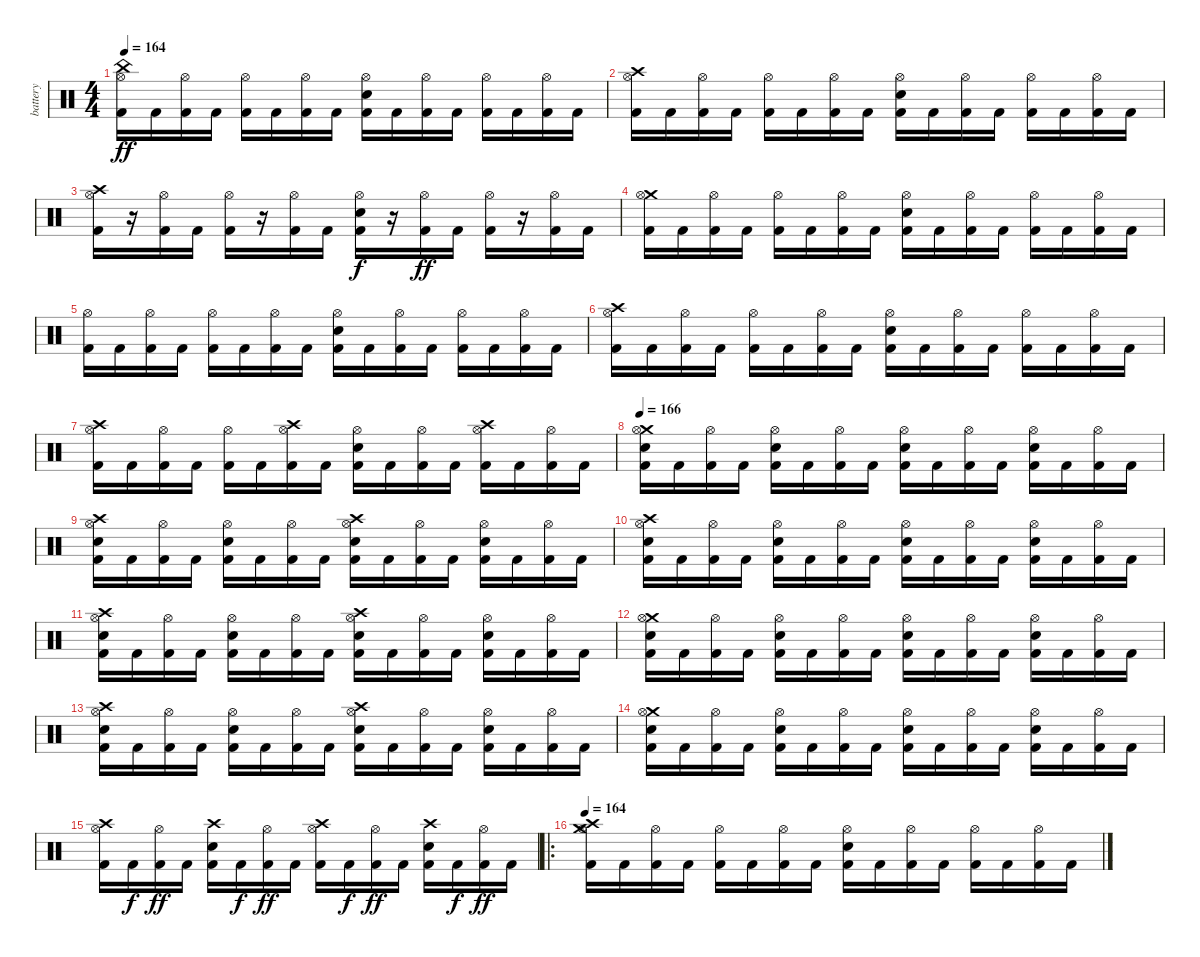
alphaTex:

\track ("battery" "battery") {instrument percussion}
\staff {score}
\articulation defaults
\ts (4 4)
\tempo 164
\clef neutral
\ks c
("Kick (hit) 2" "China (hit)" "Hi-Hat (open)").16{dy ff} "Kick (hit) 2".16 ("Kick (hit) 2" "Hi-Hat (open)").16 "Kick (hit) 2".16 ("Kick (hit) 2" "Hi-Hat (open)").16 "Kick (hit) 2".16 ("Kick (hit) 2" "Hi-Hat (open)").16 "Kick (hit) 2".16 ("Kick (hit) 2" "Electric Snare (hit)" "Hi-Hat (open)").16 "Kick (hit) 2".16 ("Kick (hit) 2" "Hi-Hat (open)").16 "Kick (hit) 2".16 ("Kick (hit) 2" "Hi-Hat (open)").16 "Kick (hit) 2".16 ("Kick (hit) 2" "Hi-Hat (open)").16 "Kick (hit) 2".16 |
("Kick (hit) 2" "Crash high (hit)" "Hi-Hat (open)").16 "Kick (hit) 2".16 ("Kick (hit) 2" "Hi-Hat (open)").16 "Kick (hit) 2".16 ("Kick (hit) 2" "Hi-Hat (open)").16 "Kick (hit) 2".16 ("Kick (hit) 2" "Hi-Hat (open)").16 "Kick (hit) 2".16 ("Kick (hit) 2" "Electric Snare (hit)" "Hi-Hat (open)").16 "Kick (hit) 2".16 ("Kick (hit) 2" "Hi-Hat (open)").16 "Kick (hit) 2".16 ("Kick (hit) 2" "Hi-Hat (open)").16 "Kick (hit) 2".16 ("Kick (hit) 2" "Hi-Hat (open)").16 "Kick (hit) 2".16 |
("Kick (hit) 2" "Crash high (hit)" "Hi-Hat (open)").16 r.16 ("Kick (hit) 2" "Hi-Hat (open)").16 "Kick (hit) 2".16 ("Kick (hit) 2" "Hi-Hat (open)").16 r.16 ("Kick (hit) 2" "Hi-Hat (open)").16 "Kick (hit) 2".16 ("Kick (hit) 2" "Electric Snare (hit)" "Hi-Hat (open)").16{dy f} r.16 ("Kick (hit) 2" "Hi-Hat (open)").16{dy ff} "Kick (hit) 2".16 ("Kick (hit) 2" "Hi-Hat (open)").16 r.16 ("Kick (hit) 2" "Hi-Hat (open)").16 "Kick (hit) 2".16 |
("Kick (hit) 2" "Crash medium (hit)" "Hi-Hat (open)").16 "Kick (hit) 2".16 ("Kick (hit) 2" "Hi-Hat (open)").16 "Kick (hit) 2".16 ("Kick (hit) 2" "Hi-Hat (open)").16 "Kick (hit) 2".16 ("Kick (hit) 2" "Hi-Hat (open)").16 "Kick (hit) 2".16 ("Kick (hit) 2" "Electric Snare (hit)" "Hi-Hat (open)").16 "Kick (hit) 2".16 ("Kick (hit) 2" "Hi-Hat (open)").16 "Kick (hit) 2".16 ("Kick (hit) 2" "Hi-Hat (open)").16 "Kick (hit) 2".16 ("Kick (hit) 2" "Hi-Hat (open)").16 "Kick (hit) 2".16 |
("Kick (hit) 2" "Hi-Hat (open)").16 "Kick (hit) 2".16 ("Kick (hit) 2" "Hi-Hat (open)").16 "Kick (hit) 2".16 ("Kick (hit) 2" "Hi-Hat (open)").16 "Kick (hit) 2".16 ("Kick (hit) 2" "Hi-Hat (open)").16 "Kick (hit) 2".16 ("Kick (hit) 2" "Electric Snare (hit)" "Hi-Hat (open)").16 "Kick (hit) 2".16 ("Kick (hit) 2" "Hi-Hat (open)").16 "Kick (hit) 2".16 ("Kick (hit) 2" "Hi-Hat (open)").16 "Kick (hit) 2".16 ("Kick (hit) 2" "Hi-Hat (open)").16 "Kick (hit) 2".16 |
("Kick (hit) 2" "Crash high (hit)" "Hi-Hat (open)").16 "Kick (hit) 2".16 ("Kick (hit) 2" "Hi-Hat (open)").16 "Kick (hit) 2".16 ("Kick (hit) 2" "Hi-Hat (open)").16 "Kick (hit) 2".16 ("Kick (hit) 2" "Hi-Hat (open)").16 "Kick (hit) 2".16 ("Kick (hit) 2" "Electric Snare (hit)" "Hi-Hat (open)").16 "Kick (hit) 2".16 ("Kick (hit) 2" "Hi-Hat (open)").16 "Kick (hit) 2".16 ("Kick (hit) 2" "Hi-Hat (open)").16 "Kick (hit) 2".16 ("Kick (hit) 2" "Hi-Hat (open)").16 "Kick (hit) 2".16 |
("Kick (hit) 2" "Crash high (hit)" "Hi-Hat (open)").16 "Kick (hit) 2".16 ("Kick (hit) 2" "Hi-Hat (open)").16 "Kick (hit) 2".16 ("Kick (hit) 2" "Hi-Hat (open)").16 "Kick (hit) 2".16 ("Kick (hit) 2" "Crash high (hit)" "Hi-Hat (open)").16 "Kick (hit) 2".16 ("Kick (hit) 2" "Electric Snare (hit)" "Hi-Hat (open)").16 "Kick (hit) 2".16 ("Kick (hit) 2" "Hi-Hat (open)").16 "Kick (hit) 2".16 ("Kick (hit) 2" "Crash high (hit)" "Hi-Hat (open)").16 "Kick (hit) 2".16 ("Kick (hit) 2" "Hi-Hat (open)").16 "Kick (hit) 2".16 |
\tempo 166
("Kick (hit) 2" "Electric Snare (hit)" "Crash medium (hit)" "Hi-Hat (open)").16 "Kick (hit) 2".16 ("Kick (hit) 2" "Hi-Hat (open)").16 "Kick (hit) 2".16 ("Kick (hit) 2" "Electric Snare (hit)" "Hi-Hat (open)").16 "Kick (hit) 2".16 ("Kick (hit) 2" "Hi-Hat (open)").16 "Kick (hit) 2".16 ("Kick (hit) 2" "Electric Snare (hit)" "Hi-Hat (open)").16 "Kick (hit) 2".16 ("Kick (hit) 2" "Hi-Hat (open)").16 "Kick (hit) 2".16 ("Kick (hit) 2" "Electric Snare (hit)" "Hi-Hat (open)").16 "Kick (hit) 2".16 ("Kick (hit) 2" "Hi-Hat (open)").16 "Kick (hit) 2".16 |
("Kick (hit) 2" "Electric Snare (hit)" "Crash high (hit)" "Hi-Hat (open)").16 "Kick (hit) 2".16 ("Kick (hit) 2" "Hi-Hat (open)").16 "Kick (hit) 2".16 ("Kick (hit) 2" "Electric Snare (hit)" "Hi-Hat (open)").16 "Kick (hit) 2".16 ("Kick (hit) 2" "Hi-Hat (open)").16 "Kick (hit) 2".16 ("Kick (hit) 2" "Electric Snare (hit)" "Crash high (hit)" "Hi-Hat (open)").16 "Kick (hit) 2".16 ("Kick (hit) 2" "Hi-Hat (open)").16 "Kick (hit) 2".16 ("Kick (hit) 2" "Electric Snare (hit)" "Hi-Hat (open)").16 "Kick (hit) 2".16 ("Kick (hit) 2" "Hi-Hat (open)").16 "Kick (hit) 2".16 |
("Kick (hit) 2" "Electric Snare (hit)" "Crash high (hit)" "Hi-Hat (open)").16 "Kick (hit) 2".16 ("Kick (hit) 2" "Hi-Hat (open)").16 "Kick (hit) 2".16 ("Kick (hit) 2" "Electric Snare (hit)" "Hi-Hat (open)").16 "Kick (hit) 2".16 ("Kick (hit) 2" "Hi-Hat (open)").16 "Kick (hit) 2".16 ("Kick (hit) 2" "Electric Snare (hit)" "Hi-Hat (open)").16 "Kick (hit) 2".16 ("Kick (hit) 2" "Hi-Hat (open)").16 "Kick (hit) 2".16 ("Kick (hit) 2" "Electric Snare (hit)" "Hi-Hat (open)").16 "Kick (hit) 2".16 ("Kick (hit) 2" "Hi-Hat (open)").16 "Kick (hit) 2".16 |
("Kick (hit) 2" "Electric Snare (hit)" "Crash high (hit)" "Hi-Hat (open)").16 "Kick (hit) 2".16 ("Kick (hit) 2" "Hi-Hat (open)").16 "Kick (hit) 2".16 ("Kick (hit) 2" "Electric Snare (hit)" "Hi-Hat (open)").16 "Kick (hit) 2".16 ("Kick (hit) 2" "Hi-Hat (open)").16 "Kick (hit) 2".16 ("Kick (hit) 2" "Electric Snare (hit)" "Crash high (hit)" "Hi-Hat (open)").16 "Kick (hit) 2".16 ("Kick (hit) 2" "Hi-Hat (open)").16 "Kick (hit) 2".16 ("Kick (hit) 2" "Electric Snare (hit)" "Hi-Hat (open)").16 "Kick (hit) 2".16 ("Kick (hit) 2" "Hi-Hat (open)").16 "Kick (hit) 2".16 |
("Kick (hit) 2" "Electric Snare (hit)" "Crash medium (hit)" "Hi-Hat (open)").16 "Kick (hit) 2".16 ("Kick (hit) 2" "Hi-Hat (open)").16 "Kick (hit) 2".16 ("Kick (hit) 2" "Electric Snare (hit)" "Hi-Hat (open)").16 "Kick (hit) 2".16 ("Kick (hit) 2" "Hi-Hat (open)").16 "Kick (hit) 2".16 ("Kick (hit) 2" "Electric Snare (hit)" "Hi-Hat (open)").16 "Kick (hit) 2".16 ("Kick (hit) 2" "Hi-Hat (open)").16 "Kick (hit) 2".16 ("Kick (hit) 2" "Electric Snare (hit)" "Hi-Hat (open)").16 "Kick (hit) 2".16 ("Kick (hit) 2" "Hi-Hat (open)").16 "Kick (hit) 2".16 |
("Kick (hit) 2" "Electric Snare (hit)" "Crash high (hit)" "Hi-Hat (open)").16 "Kick (hit) 2".16 ("Kick (hit) 2" "Hi-Hat (open)").16 "Kick (hit) 2".16 ("Kick (hit) 2" "Electric Snare (hit)" "Hi-Hat (open)").16 "Kick (hit) 2".16 ("Kick (hit) 2" "Hi-Hat (open)").16 "Kick (hit) 2".16 ("Kick (hit) 2" "Electric Snare (hit)" "Crash high (hit)" "Hi-Hat (open)").16 "Kick (hit) 2".16 ("Kick (hit) 2" "Hi-Hat (open)").16 "Kick (hit) 2".16 ("Kick (hit) 2" "Electric Snare (hit)" "Hi-Hat (open)").16 "Kick (hit) 2".16 ("Kick (hit) 2" "Hi-Hat (open)").16 "Kick (hit) 2".16 |
("Kick (hit) 2" "Electric Snare (hit)" "Crash medium (hit)" "Hi-Hat (open)").16 "Kick (hit) 2".16 ("Kick (hit) 2" "Hi-Hat (open)").16 "Kick (hit) 2".16 ("Kick (hit) 2" "Electric Snare (hit)" "Hi-Hat (open)").16 "Kick (hit) 2".16 ("Kick (hit) 2" "Hi-Hat (open)").16 "Kick (hit) 2".16 ("Kick (hit) 2" "Electric Snare (hit)" "Hi-Hat (open)").16 "Kick (hit) 2".16 ("Kick (hit) 2" "Hi-Hat (open)").16 "Kick (hit) 2".16 ("Kick (hit) 2" "Electric Snare (hit)" "Hi-Hat (open)").16 "Kick (hit) 2".16 ("Kick (hit) 2" "Hi-Hat (open)").16 "Kick (hit) 2".16 |
("Kick (hit) 2" "Crash high (hit)" "Hi-Hat (open)").16 "Kick (hit) 2".16{dy f} ("Kick (hit) 2" "Hi-Hat (open)").16{dy ff} "Kick (hit) 2".16 ("Kick (hit) 2" "Electric Snare (hit)" "Crash high (hit)").16 "Kick (hit) 2".16{dy f} ("Kick (hit) 2" "Hi-Hat (open)").16{dy ff} "Kick (hit) 2".16 ("Kick (hit) 2" "Crash high (hit)" "Hi-Hat (open)").16 "Kick (hit) 2".16{dy f} ("Kick (hit) 2" "Hi-Hat (open)").16{dy ff} "Kick (hit) 2".16 ("Kick (hit) 2" "Electric Snare (hit)" "Crash high (hit)").16 "Kick (hit) 2".16{dy f} ("Kick (hit) 2" "Hi-Hat (open)").16{dy ff} "Kick (hit) 2".16 |
\ro
\tempo 164
("Kick (hit) 2" "Crash high (hit)" "Crash medium (hit)" "Hi-Hat (open)").16 "Kick (hit) 2".16 ("Kick (hit) 2" "Hi-Hat (open)").16 "Kick (hit) 2".16 ("Kick (hit) 2" "Hi-Hat (open)").16 "Kick (hit) 2".16 ("Kick (hit) 2" "Hi-Hat (open)").16 "Kick (hit) 2".16 ("Kick (hit) 2" "Electric Snare (hit)" "Hi-Hat (open)").16 "Kick (hit) 2".16 ("Kick (hit) 2" "Hi-Hat (open)").16 "Kick (hit) 2".16 ("Kick (hit) 2" "Hi-Hat (open)").16 "Kick (hit) 2".16 ("Kick (hit) 2" "Hi-Hat (open)").16 "Kick (hit) 2".16
